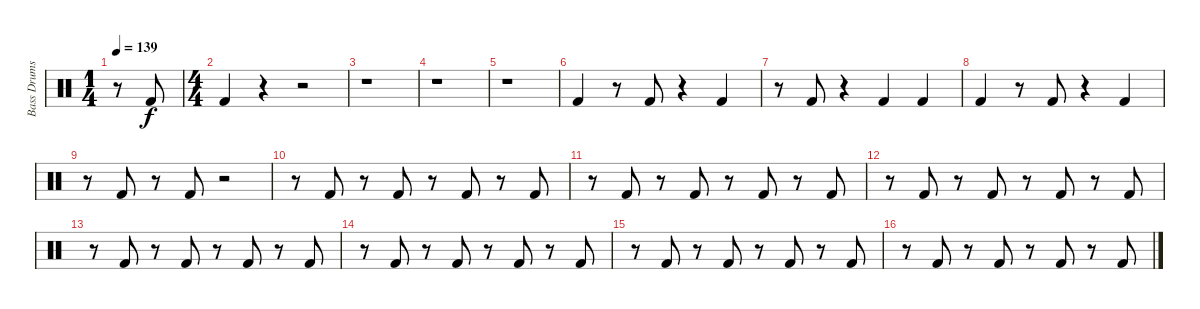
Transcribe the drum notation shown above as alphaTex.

\track ("Bass Drums" "Bass Drums") {instrument percussion}
\staff {score}
\articulation defaults
\ts (1 4)
\tempo 139
\clef neutral
\ks c
r.8{dy f} "Kick (hit) 2".8 |
\ts (4 4)
"Kick (hit) 2".4 r.4 r.2 |
r.1 |
r.1 |
r.1 |
"Kick (hit) 2".4 r.8 "Kick (hit) 2".8 r.4 "Kick (hit) 2".4 |
r.8 "Kick (hit) 2".8 r.4 "Kick (hit) 2".4 "Kick (hit) 2".4 |
"Kick (hit) 2".4 r.8 "Kick (hit) 2".8 r.4 "Kick (hit) 2".4 |
r.8 "Kick (hit) 2".8 r.8 "Kick (hit) 2".8 r.2 |
r.8 "Kick (hit) 2".8 r.8 "Kick (hit) 2".8 r.8 "Kick (hit) 2".8 r.8 "Kick (hit) 2".8 |
r.8 "Kick (hit) 2".8 r.8 "Kick (hit) 2".8 r.8 "Kick (hit) 2".8 r.8 "Kick (hit) 2".8 |
r.8 "Kick (hit) 2".8 r.8 "Kick (hit) 2".8 r.8 "Kick (hit) 2".8 r.8 "Kick (hit) 2".8 |
r.8 "Kick (hit) 2".8 r.8 "Kick (hit) 2".8 r.8 "Kick (hit) 2".8 r.8 "Kick (hit) 2".8 |
r.8 "Kick (hit) 2".8 r.8 "Kick (hit) 2".8 r.8 "Kick (hit) 2".8 r.8 "Kick (hit) 2".8 |
r.8 "Kick (hit) 2".8 r.8 "Kick (hit) 2".8 r.8 "Kick (hit) 2".8 r.8 "Kick (hit) 2".8 |
r.8 "Kick (hit) 2".8 r.8 "Kick (hit) 2".8 r.8 "Kick (hit) 2".8 r.8 "Kick (hit) 2".8
